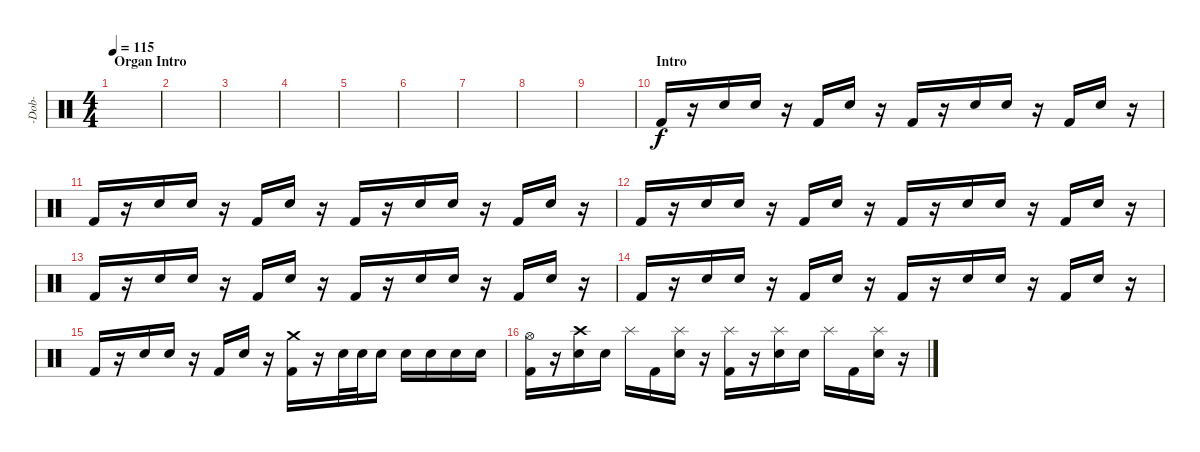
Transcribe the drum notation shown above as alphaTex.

\track ("-Dob-" "-Dob-") {instrument percussion}
\staff {score}
\articulation defaults
\ts (4 4)
\section ("" "Organ Intro")
\tempo 115
\clef neutral
\ks c
|
|
|
|
|
|
|
|
|
\section ("" "Intro")
"Kick (hit) 2".16 r.16 "Snare (hit) 2".16 "Snare (hit) 2".16 r.16 "Kick (hit) 2".16 "Snare (hit) 2".16 r.16 "Kick (hit) 2".16 r.16 "Snare (hit) 2".16 "Snare (hit) 2".16 r.16 "Kick (hit) 2".16 "Snare (hit) 2".16 r.16 |
"Kick (hit) 2".16 r.16 "Snare (hit) 2".16 "Snare (hit) 2".16 r.16 "Kick (hit) 2".16 "Snare (hit) 2".16 r.16 "Kick (hit) 2".16 r.16 "Snare (hit) 2".16 "Snare (hit) 2".16 r.16 "Kick (hit) 2".16 "Snare (hit) 2".16 r.16 |
"Kick (hit) 2".16 r.16 "Snare (hit) 2".16 "Snare (hit) 2".16 r.16 "Kick (hit) 2".16 "Snare (hit) 2".16 r.16 "Kick (hit) 2".16 r.16 "Snare (hit) 2".16 "Snare (hit) 2".16 r.16 "Kick (hit) 2".16 "Snare (hit) 2".16 r.16 |
"Kick (hit) 2".16 r.16 "Snare (hit) 2".16 "Snare (hit) 2".16 r.16 "Kick (hit) 2".16 "Snare (hit) 2".16 r.16 "Kick (hit) 2".16 r.16 "Snare (hit) 2".16 "Snare (hit) 2".16 r.16 "Kick (hit) 2".16 "Snare (hit) 2".16 r.16 |
"Kick (hit) 2".16 r.16 "Snare (hit) 2".16 "Snare (hit) 2".16 r.16 "Kick (hit) 2".16 "Snare (hit) 2".16 r.16 "Kick (hit) 2".16 r.16 "Snare (hit) 2".16 "Snare (hit) 2".16 r.16 "Kick (hit) 2".16 "Snare (hit) 2".16 r.16 |
"Kick (hit) 2".16 r.16 "Snare (hit) 2".16 "Snare (hit) 2".16 r.16 "Kick (hit) 2".16 "Snare (hit) 2".16 r.16 ("Crash medium (hit)" "Kick (hit) 2").16 r.16 "Snare (hit) 2".32 "Snare (hit) 2".32 "Snare (hit) 2".16 "Snare (hit) 2".16 "Snare (hit) 2".16 "Snare (hit) 2".16 "Snare (hit) 2".16 |
("Hi-Hat (open)" "Kick (hit) 2").16 r.16 ("Crash high (hit)" "Snare (hit) 2").16 "Snare (hit) 2".16 "Splash (hit)".16 "Kick (hit) 2".16 ("Splash (hit)" "Snare (hit) 2").16 r.16 ("Splash (hit)" "Kick (hit) 2").16 r.16 ("Splash (hit)" "Snare (hit) 2").16 "Snare (hit) 2".16 "Splash (hit)".16 "Kick (hit) 2".16 ("Splash (hit)" "Snare (hit) 2").16 r.16
